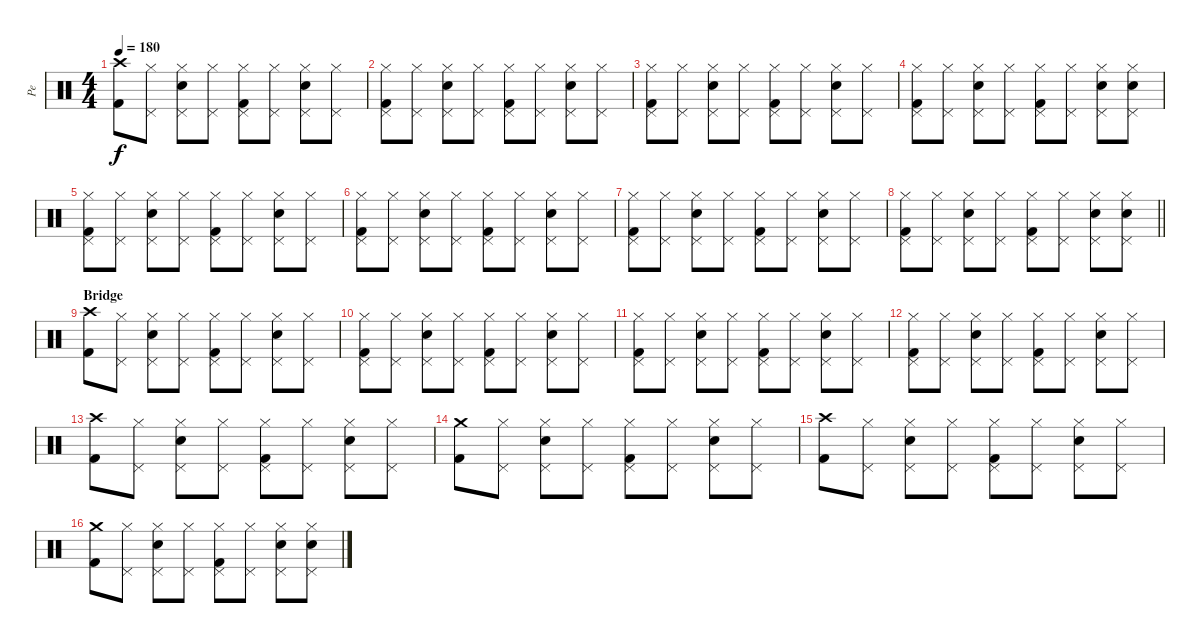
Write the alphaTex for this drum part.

\track ("Pe" "Pe") {instrument percussion}
\staff {score}
\articulation defaults
\ts (4 4)
\tempo 180
\clef neutral
\ks c
("Kick (hit) 2" "Crash high (hit)").8{dy f} ("Hi-Hat (closed)" "Pedal Hi-Hat (hit)").8 ("Electric Snare (hit)" "Hi-Hat (closed)" "Pedal Hi-Hat (hit)").8 ("Hi-Hat (closed)" "Pedal Hi-Hat (hit)").8 ("Kick (hit) 2" "Hi-Hat (closed)" "Pedal Hi-Hat (hit)").8 ("Hi-Hat (closed)" "Pedal Hi-Hat (hit)").8 ("Electric Snare (hit)" "Hi-Hat (closed)" "Pedal Hi-Hat (hit)").8 ("Hi-Hat (closed)" "Pedal Hi-Hat (hit)").8 |
("Kick (hit) 2" "Hi-Hat (closed)" "Pedal Hi-Hat (hit)").8 ("Hi-Hat (closed)" "Pedal Hi-Hat (hit)").8 ("Electric Snare (hit)" "Hi-Hat (closed)" "Pedal Hi-Hat (hit)").8 ("Hi-Hat (closed)" "Pedal Hi-Hat (hit)").8 ("Kick (hit) 2" "Hi-Hat (closed)" "Pedal Hi-Hat (hit)").8 ("Hi-Hat (closed)" "Pedal Hi-Hat (hit)").8 ("Electric Snare (hit)" "Hi-Hat (closed)" "Pedal Hi-Hat (hit)").8 ("Hi-Hat (closed)" "Pedal Hi-Hat (hit)").8 |
("Kick (hit) 2" "Hi-Hat (closed)" "Pedal Hi-Hat (hit)").8 ("Hi-Hat (closed)" "Pedal Hi-Hat (hit)").8 ("Electric Snare (hit)" "Hi-Hat (closed)" "Pedal Hi-Hat (hit)").8 ("Hi-Hat (closed)" "Pedal Hi-Hat (hit)").8 ("Kick (hit) 2" "Hi-Hat (closed)" "Pedal Hi-Hat (hit)").8 ("Hi-Hat (closed)" "Pedal Hi-Hat (hit)").8 ("Electric Snare (hit)" "Hi-Hat (closed)" "Pedal Hi-Hat (hit)").8 ("Hi-Hat (closed)" "Pedal Hi-Hat (hit)").8 |
("Kick (hit) 2" "Hi-Hat (closed)" "Pedal Hi-Hat (hit)").8 ("Hi-Hat (closed)" "Pedal Hi-Hat (hit)").8 ("Electric Snare (hit)" "Hi-Hat (closed)" "Pedal Hi-Hat (hit)").8 ("Hi-Hat (closed)" "Pedal Hi-Hat (hit)").8 ("Kick (hit) 2" "Hi-Hat (closed)" "Pedal Hi-Hat (hit)").8 ("Hi-Hat (closed)" "Pedal Hi-Hat (hit)").8 ("Electric Snare (hit)" "Hi-Hat (closed)" "Pedal Hi-Hat (hit)").8 ("Electric Snare (hit)" "Hi-Hat (closed)" "Pedal Hi-Hat (hit)").8 |
("Kick (hit) 2" "Hi-Hat (closed)" "Pedal Hi-Hat (hit)").8 ("Hi-Hat (closed)" "Pedal Hi-Hat (hit)").8 ("Electric Snare (hit)" "Hi-Hat (closed)" "Pedal Hi-Hat (hit)").8 ("Hi-Hat (closed)" "Pedal Hi-Hat (hit)").8 ("Kick (hit) 2" "Hi-Hat (closed)" "Pedal Hi-Hat (hit)").8 ("Hi-Hat (closed)" "Pedal Hi-Hat (hit)").8 ("Electric Snare (hit)" "Hi-Hat (closed)" "Pedal Hi-Hat (hit)").8 ("Hi-Hat (closed)" "Pedal Hi-Hat (hit)").8 |
("Kick (hit) 2" "Hi-Hat (closed)" "Pedal Hi-Hat (hit)").8 ("Hi-Hat (closed)" "Pedal Hi-Hat (hit)").8 ("Electric Snare (hit)" "Hi-Hat (closed)" "Pedal Hi-Hat (hit)").8 ("Hi-Hat (closed)" "Pedal Hi-Hat (hit)").8 ("Kick (hit) 2" "Hi-Hat (closed)" "Pedal Hi-Hat (hit)").8 ("Hi-Hat (closed)" "Pedal Hi-Hat (hit)").8 ("Electric Snare (hit)" "Hi-Hat (closed)" "Pedal Hi-Hat (hit)").8 ("Hi-Hat (closed)" "Pedal Hi-Hat (hit)").8 |
("Kick (hit) 2" "Hi-Hat (closed)" "Pedal Hi-Hat (hit)").8 ("Hi-Hat (closed)" "Pedal Hi-Hat (hit)").8 ("Electric Snare (hit)" "Hi-Hat (closed)" "Pedal Hi-Hat (hit)").8 ("Hi-Hat (closed)" "Pedal Hi-Hat (hit)").8 ("Kick (hit) 2" "Hi-Hat (closed)" "Pedal Hi-Hat (hit)").8 ("Hi-Hat (closed)" "Pedal Hi-Hat (hit)").8 ("Electric Snare (hit)" "Hi-Hat (closed)" "Pedal Hi-Hat (hit)").8 ("Hi-Hat (closed)" "Pedal Hi-Hat (hit)").8 |
\barLineRight lightlight
("Kick (hit) 2" "Hi-Hat (closed)" "Pedal Hi-Hat (hit)").8 ("Hi-Hat (closed)" "Pedal Hi-Hat (hit)").8 ("Electric Snare (hit)" "Hi-Hat (closed)" "Pedal Hi-Hat (hit)").8 ("Hi-Hat (closed)" "Pedal Hi-Hat (hit)").8 ("Kick (hit) 2" "Hi-Hat (closed)" "Pedal Hi-Hat (hit)").8 ("Hi-Hat (closed)" "Pedal Hi-Hat (hit)").8 ("Electric Snare (hit)" "Hi-Hat (closed)" "Pedal Hi-Hat (hit)").8 ("Electric Snare (hit)" "Hi-Hat (closed)" "Pedal Hi-Hat (hit)").8 |
\section ("" "Bridge")
("Kick (hit) 2" "Crash high (hit)").8 ("Hi-Hat (closed)" "Pedal Hi-Hat (hit)").8 ("Electric Snare (hit)" "Hi-Hat (closed)" "Pedal Hi-Hat (hit)").8 ("Hi-Hat (closed)" "Pedal Hi-Hat (hit)").8 ("Kick (hit) 2" "Hi-Hat (closed)" "Pedal Hi-Hat (hit)").8 ("Hi-Hat (closed)" "Pedal Hi-Hat (hit)").8 ("Electric Snare (hit)" "Hi-Hat (closed)" "Pedal Hi-Hat (hit)").8 ("Hi-Hat (closed)" "Pedal Hi-Hat (hit)").8 |
("Kick (hit) 2" "Hi-Hat (closed)" "Pedal Hi-Hat (hit)").8 ("Hi-Hat (closed)" "Pedal Hi-Hat (hit)").8 ("Electric Snare (hit)" "Hi-Hat (closed)" "Pedal Hi-Hat (hit)").8 ("Hi-Hat (closed)" "Pedal Hi-Hat (hit)").8 ("Kick (hit) 2" "Hi-Hat (closed)" "Pedal Hi-Hat (hit)").8 ("Hi-Hat (closed)" "Pedal Hi-Hat (hit)").8 ("Electric Snare (hit)" "Hi-Hat (closed)" "Pedal Hi-Hat (hit)").8 ("Hi-Hat (closed)" "Pedal Hi-Hat (hit)").8 |
("Kick (hit) 2" "Hi-Hat (closed)" "Pedal Hi-Hat (hit)").8 ("Hi-Hat (closed)" "Pedal Hi-Hat (hit)").8 ("Electric Snare (hit)" "Hi-Hat (closed)" "Pedal Hi-Hat (hit)").8 ("Hi-Hat (closed)" "Pedal Hi-Hat (hit)").8 ("Kick (hit) 2" "Hi-Hat (closed)" "Pedal Hi-Hat (hit)").8 ("Hi-Hat (closed)" "Pedal Hi-Hat (hit)").8 ("Electric Snare (hit)" "Hi-Hat (closed)" "Pedal Hi-Hat (hit)").8 ("Hi-Hat (closed)" "Pedal Hi-Hat (hit)").8 |
("Kick (hit) 2" "Hi-Hat (closed)" "Pedal Hi-Hat (hit)").8 ("Hi-Hat (closed)" "Pedal Hi-Hat (hit)").8 ("Electric Snare (hit)" "Hi-Hat (closed)" "Pedal Hi-Hat (hit)").8 ("Hi-Hat (closed)" "Pedal Hi-Hat (hit)").8 ("Kick (hit) 2" "Hi-Hat (closed)" "Pedal Hi-Hat (hit)").8 ("Hi-Hat (closed)" "Pedal Hi-Hat (hit)").8 ("Electric Snare (hit)" "Hi-Hat (closed)" "Pedal Hi-Hat (hit)").8 ("Hi-Hat (closed)" "Pedal Hi-Hat (hit)").8 |
("Kick (hit) 2" "Crash high (hit)").8 ("Hi-Hat (closed)" "Pedal Hi-Hat (hit)").8 ("Electric Snare (hit)" "Hi-Hat (closed)" "Pedal Hi-Hat (hit)").8 ("Hi-Hat (closed)" "Pedal Hi-Hat (hit)").8 ("Kick (hit) 2" "Hi-Hat (closed)" "Pedal Hi-Hat (hit)").8 ("Hi-Hat (closed)" "Pedal Hi-Hat (hit)").8 ("Electric Snare (hit)" "Hi-Hat (closed)" "Pedal Hi-Hat (hit)").8 ("Hi-Hat (closed)" "Pedal Hi-Hat (hit)").8 |
("Kick (hit) 2" "Crash medium (hit)").8 ("Hi-Hat (closed)" "Pedal Hi-Hat (hit)").8 ("Electric Snare (hit)" "Hi-Hat (closed)" "Pedal Hi-Hat (hit)").8 ("Hi-Hat (closed)" "Pedal Hi-Hat (hit)").8 ("Kick (hit) 2" "Hi-Hat (closed)" "Pedal Hi-Hat (hit)").8 ("Hi-Hat (closed)" "Pedal Hi-Hat (hit)").8 ("Electric Snare (hit)" "Hi-Hat (closed)" "Pedal Hi-Hat (hit)").8 ("Hi-Hat (closed)" "Pedal Hi-Hat (hit)").8 |
("Kick (hit) 2" "Crash high (hit)").8 ("Hi-Hat (closed)" "Pedal Hi-Hat (hit)").8 ("Electric Snare (hit)" "Hi-Hat (closed)" "Pedal Hi-Hat (hit)").8 ("Hi-Hat (closed)" "Pedal Hi-Hat (hit)").8 ("Kick (hit) 2" "Hi-Hat (closed)" "Pedal Hi-Hat (hit)").8 ("Hi-Hat (closed)" "Pedal Hi-Hat (hit)").8 ("Electric Snare (hit)" "Hi-Hat (closed)" "Pedal Hi-Hat (hit)").8 ("Hi-Hat (closed)" "Pedal Hi-Hat (hit)").8 |
("Kick (hit) 2" "Crash medium (hit)").8 ("Hi-Hat (closed)" "Pedal Hi-Hat (hit)").8 ("Electric Snare (hit)" "Hi-Hat (closed)" "Pedal Hi-Hat (hit)").8 ("Hi-Hat (closed)" "Pedal Hi-Hat (hit)").8 ("Kick (hit) 2" "Hi-Hat (closed)" "Pedal Hi-Hat (hit)").8 ("Hi-Hat (closed)" "Pedal Hi-Hat (hit)").8 ("Electric Snare (hit)" "Hi-Hat (closed)" "Pedal Hi-Hat (hit)").8 ("Electric Snare (hit)" "Hi-Hat (closed)" "Pedal Hi-Hat (hit)").8
